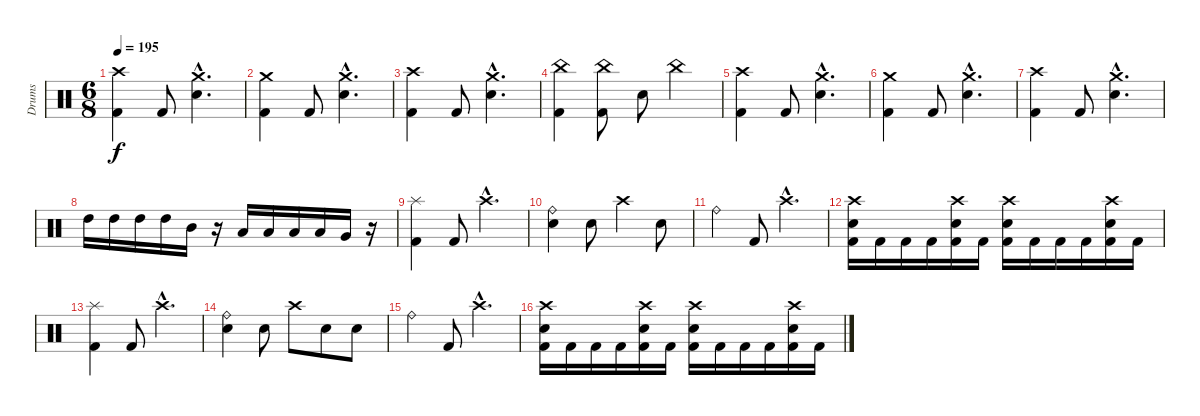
\track ("Drums" "Drums") {instrument percussion}
\staff {score}
\articulation defaults
\ts (6 8)
\tempo 195
\clef neutral
\ks c
("Crash high (hit)" "Kick (hit) 2").4{dy f} "Kick (hit) 2".8 ("Crash medium (hit)"{hac} "Electric Snare (hit)"{hac}).4{d} |
("Crash medium (hit)" "Kick (hit) 2").4 "Kick (hit) 2".8 ("Crash medium (hit)"{hac} "Electric Snare (hit)"{hac}).4{d} |
("Crash high (hit)" "Kick (hit) 2").4 "Kick (hit) 2".8 ("Crash medium (hit)"{hac} "Electric Snare (hit)"{hac}).4{d} |
("China (hit)" "Kick (hit) 2").4 ("China (hit)" "Kick (hit) 2").8 "Electric Snare (hit)".8 "China (hit)".4 |
("Crash high (hit)" "Kick (hit) 2").4 "Kick (hit) 2".8 ("Crash medium (hit)"{hac} "Electric Snare (hit)"{hac}).4{d} |
("Crash medium (hit)" "Kick (hit) 2").4 "Kick (hit) 2".8 ("Crash medium (hit)"{hac} "Electric Snare (hit)"{hac}).4{d} |
("Crash high (hit)" "Kick (hit) 2").4 "Kick (hit) 2".8 ("Crash medium (hit)"{hac} "Electric Snare (hit)"{hac}).4{d} |
"High Tom (hit)".16 "High Tom (hit)".16 "High Tom (hit)".16 "High Tom (hit)".16 "Mid Tom (hit)".16 r.16 "Low Tom (hit)".16 "Low Tom (hit)".16 "Low Tom (hit)".16 "Low Tom (hit)".16 "Very Low Tom (hit)".16 r.16 |
("Splash (hit)" "Kick (hit) 2").4 "Kick (hit) 2".8 "Crash high (hit)"{hac}.4{d} |
("Ride (bell)" "Electric Snare (hit)").4 "Electric Snare (hit)".8 "Crash high (hit)".4 "Electric Snare (hit)".8 |
"Ride (bell)".4 "Kick (hit) 2".8 "Crash high (hit)"{hac}.4{d} |
("Crash high (hit)" "Electric Snare (hit)" "Kick (hit) 2").16 "Kick (hit) 2".16 "Kick (hit) 2".16 "Kick (hit) 2".16 ("Crash high (hit)" "Electric Snare (hit)" "Kick (hit) 2").16 "Kick (hit) 2".16 ("Crash high (hit)" "Electric Snare (hit)" "Kick (hit) 2").16 "Kick (hit) 2".16 "Kick (hit) 2".16 "Kick (hit) 2".16 ("Crash high (hit)" "Electric Snare (hit)" "Kick (hit) 2").16 "Kick (hit) 2".16 |
("Splash (hit)" "Kick (hit) 2").4 "Kick (hit) 2".8 "Crash high (hit)"{hac}.4{d} |
("Ride (bell)" "Electric Snare (hit)").4 "Electric Snare (hit)".8 "Crash high (hit)".8 "Electric Snare (hit)".8 "Electric Snare (hit)".8 |
"Ride (bell)".4 "Kick (hit) 2".8 "Crash high (hit)"{hac}.4{d} |
("Crash high (hit)" "Electric Snare (hit)" "Kick (hit) 2").16 "Kick (hit) 2".16 "Kick (hit) 2".16 "Kick (hit) 2".16 ("Crash high (hit)" "Electric Snare (hit)" "Kick (hit) 2").16 "Kick (hit) 2".16 ("Crash high (hit)" "Electric Snare (hit)" "Kick (hit) 2").16 "Kick (hit) 2".16 "Kick (hit) 2".16 "Kick (hit) 2".16 ("Crash high (hit)" "Electric Snare (hit)" "Kick (hit) 2").16 "Kick (hit) 2".16
